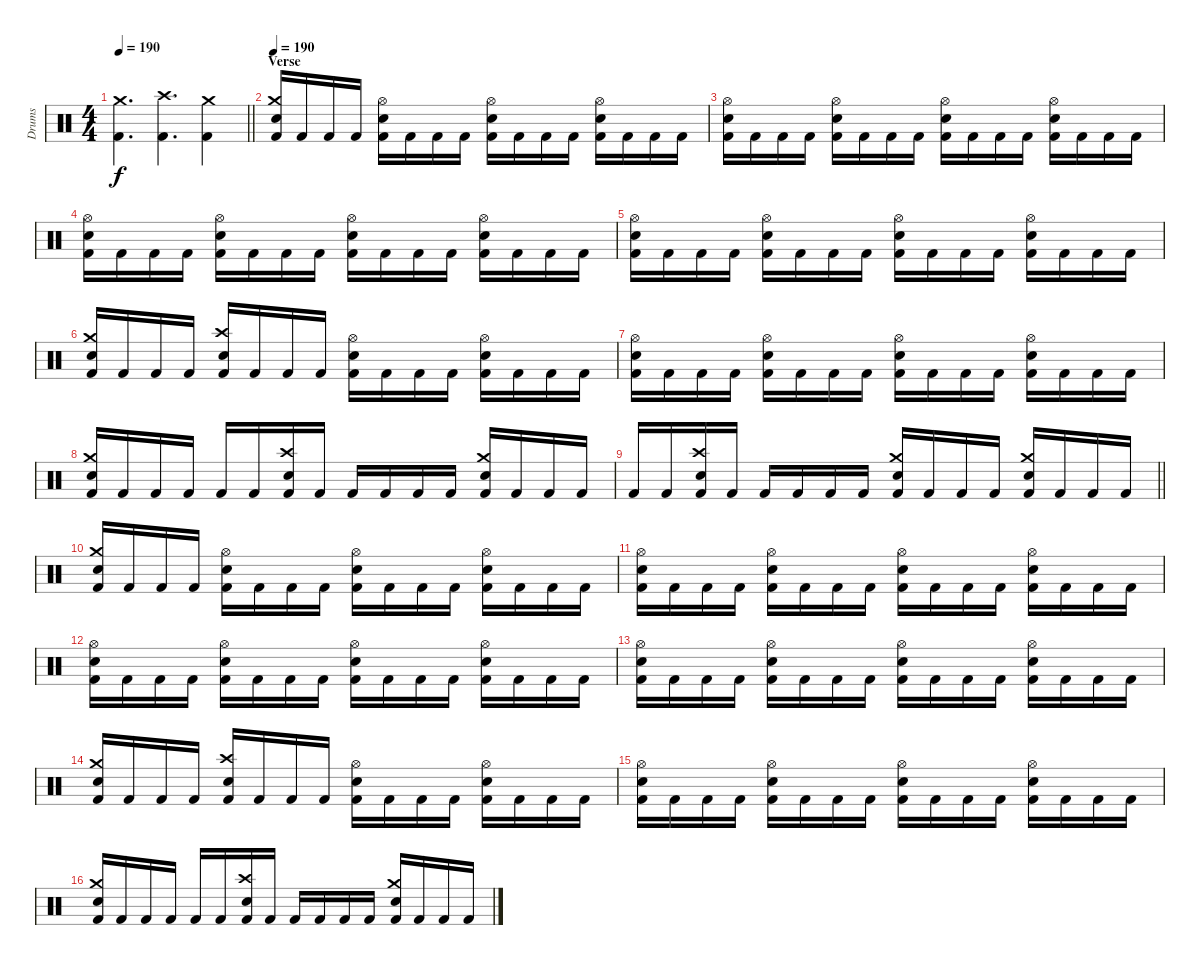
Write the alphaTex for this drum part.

\track ("Drums" "Drums") {instrument percussion}
\staff {score}
\articulation defaults
\ts (4 4)
\tempo 190
\clef neutral
\barLineRight lightlight
\ks c
("Kick (hit) 2" "Crash medium (hit)").4{d dy f} ("Kick (hit) 2" "Crash high (hit)").4{d} ("Kick (hit) 2" "Crash medium (hit)").4 |
\section ("" "Verse")
\tempo 190
("Kick (hit) 2" "Snare (hit) 2" "Crash medium (hit)").16 "Kick (hit) 2".16 "Kick (hit) 2".16 "Kick (hit) 2".16 ("Kick (hit) 2" "Snare (hit) 2" "Hi-Hat (open)").16 "Kick (hit) 2".16 "Kick (hit) 2".16 "Kick (hit) 2".16 ("Kick (hit) 2" "Snare (hit) 2" "Hi-Hat (open)").16 "Kick (hit) 2".16 "Kick (hit) 2".16 "Kick (hit) 2".16 ("Kick (hit) 2" "Snare (hit) 2" "Hi-Hat (open)").16 "Kick (hit) 2".16 "Kick (hit) 2".16 "Kick (hit) 2".16 |
("Kick (hit) 2" "Snare (hit) 2" "Hi-Hat (open)").16 "Kick (hit) 2".16 "Kick (hit) 2".16 "Kick (hit) 2".16 ("Kick (hit) 2" "Snare (hit) 2" "Hi-Hat (open)").16 "Kick (hit) 2".16 "Kick (hit) 2".16 "Kick (hit) 2".16 ("Kick (hit) 2" "Snare (hit) 2" "Hi-Hat (open)").16 "Kick (hit) 2".16 "Kick (hit) 2".16 "Kick (hit) 2".16 ("Kick (hit) 2" "Snare (hit) 2" "Hi-Hat (open)").16 "Kick (hit) 2".16 "Kick (hit) 2".16 "Kick (hit) 2".16 |
("Kick (hit) 2" "Snare (hit) 2" "Hi-Hat (open)").16 "Kick (hit) 2".16 "Kick (hit) 2".16 "Kick (hit) 2".16 ("Kick (hit) 2" "Snare (hit) 2" "Hi-Hat (open)").16 "Kick (hit) 2".16 "Kick (hit) 2".16 "Kick (hit) 2".16 ("Kick (hit) 2" "Snare (hit) 2" "Hi-Hat (open)").16 "Kick (hit) 2".16 "Kick (hit) 2".16 "Kick (hit) 2".16 ("Kick (hit) 2" "Snare (hit) 2" "Hi-Hat (open)").16 "Kick (hit) 2".16 "Kick (hit) 2".16 "Kick (hit) 2".16 |
("Kick (hit) 2" "Snare (hit) 2" "Hi-Hat (open)").16 "Kick (hit) 2".16 "Kick (hit) 2".16 "Kick (hit) 2".16 ("Kick (hit) 2" "Snare (hit) 2" "Hi-Hat (open)").16 "Kick (hit) 2".16 "Kick (hit) 2".16 "Kick (hit) 2".16 ("Kick (hit) 2" "Snare (hit) 2" "Hi-Hat (open)").16 "Kick (hit) 2".16 "Kick (hit) 2".16 "Kick (hit) 2".16 ("Kick (hit) 2" "Snare (hit) 2" "Hi-Hat (open)").16 "Kick (hit) 2".16 "Kick (hit) 2".16 "Kick (hit) 2".16 |
("Kick (hit) 2" "Snare (hit) 2" "Crash medium (hit)").16 "Kick (hit) 2".16 "Kick (hit) 2".16 "Kick (hit) 2".16 ("Kick (hit) 2" "Snare (hit) 2" "Crash high (hit)").16 "Kick (hit) 2".16 "Kick (hit) 2".16 "Kick (hit) 2".16 ("Kick (hit) 2" "Snare (hit) 2" "Hi-Hat (open)").16 "Kick (hit) 2".16 "Kick (hit) 2".16 "Kick (hit) 2".16 ("Kick (hit) 2" "Snare (hit) 2" "Hi-Hat (open)").16 "Kick (hit) 2".16 "Kick (hit) 2".16 "Kick (hit) 2".16 |
("Kick (hit) 2" "Snare (hit) 2" "Hi-Hat (open)").16 "Kick (hit) 2".16 "Kick (hit) 2".16 "Kick (hit) 2".16 ("Kick (hit) 2" "Snare (hit) 2" "Hi-Hat (open)").16 "Kick (hit) 2".16 "Kick (hit) 2".16 "Kick (hit) 2".16 ("Kick (hit) 2" "Snare (hit) 2" "Hi-Hat (open)").16 "Kick (hit) 2".16 "Kick (hit) 2".16 "Kick (hit) 2".16 ("Kick (hit) 2" "Snare (hit) 2" "Hi-Hat (open)").16 "Kick (hit) 2".16 "Kick (hit) 2".16 "Kick (hit) 2".16 |
("Kick (hit) 2" "Snare (hit) 2" "Crash medium (hit)").16 "Kick (hit) 2".16 "Kick (hit) 2".16 "Kick (hit) 2".16 "Kick (hit) 2".16 "Kick (hit) 2".16 ("Kick (hit) 2" "Snare (hit) 2" "Crash high (hit)").16 "Kick (hit) 2".16 "Kick (hit) 2".16 "Kick (hit) 2".16 "Kick (hit) 2".16 "Kick (hit) 2".16 ("Kick (hit) 2" "Snare (hit) 2" "Crash medium (hit)").16 "Kick (hit) 2".16 "Kick (hit) 2".16 "Kick (hit) 2".16 |
\barLineRight lightlight "Kick (hit) 2".16 "Kick (hit) 2".16
("Kick (hit) 2" "Snare (hit) 2" "Crash high (hit)").16 "Kick (hit) 2".16 "Kick (hit) 2".16 "Kick (hit) 2".16 "Kick (hit) 2".16 "Kick (hit) 2".16 ("Kick (hit) 2" "Snare (hit) 2" "Crash medium (hit)").16 "Kick (hit) 2".16 "Kick (hit) 2".16 "Kick (hit) 2".16 ("Kick (hit) 2" "Snare (hit) 2" "Crash medium (hit)").16 "Kick (hit) 2".16 "Kick (hit) 2".16 "Kick (hit) 2".16 |
\section ("" "")
("Kick (hit) 2" "Snare (hit) 2" "Crash medium (hit)").16 "Kick (hit) 2".16 "Kick (hit) 2".16 "Kick (hit) 2".16 ("Kick (hit) 2" "Snare (hit) 2" "Hi-Hat (open)").16 "Kick (hit) 2".16 "Kick (hit) 2".16 "Kick (hit) 2".16 ("Kick (hit) 2" "Snare (hit) 2" "Hi-Hat (open)").16 "Kick (hit) 2".16 "Kick (hit) 2".16 "Kick (hit) 2".16 ("Kick (hit) 2" "Snare (hit) 2" "Hi-Hat (open)").16 "Kick (hit) 2".16 "Kick (hit) 2".16 "Kick (hit) 2".16 |
("Kick (hit) 2" "Snare (hit) 2" "Hi-Hat (open)").16 "Kick (hit) 2".16 "Kick (hit) 2".16 "Kick (hit) 2".16 ("Kick (hit) 2" "Snare (hit) 2" "Hi-Hat (open)").16 "Kick (hit) 2".16 "Kick (hit) 2".16 "Kick (hit) 2".16 ("Kick (hit) 2" "Snare (hit) 2" "Hi-Hat (open)").16 "Kick (hit) 2".16 "Kick (hit) 2".16 "Kick (hit) 2".16 ("Kick (hit) 2" "Snare (hit) 2" "Hi-Hat (open)").16 "Kick (hit) 2".16 "Kick (hit) 2".16 "Kick (hit) 2".16 |
("Kick (hit) 2" "Snare (hit) 2" "Hi-Hat (open)").16 "Kick (hit) 2".16 "Kick (hit) 2".16 "Kick (hit) 2".16 ("Kick (hit) 2" "Snare (hit) 2" "Hi-Hat (open)").16 "Kick (hit) 2".16 "Kick (hit) 2".16 "Kick (hit) 2".16 ("Kick (hit) 2" "Snare (hit) 2" "Hi-Hat (open)").16 "Kick (hit) 2".16 "Kick (hit) 2".16 "Kick (hit) 2".16 ("Kick (hit) 2" "Snare (hit) 2" "Hi-Hat (open)").16 "Kick (hit) 2".16 "Kick (hit) 2".16 "Kick (hit) 2".16 |
("Kick (hit) 2" "Snare (hit) 2" "Hi-Hat (open)").16 "Kick (hit) 2".16 "Kick (hit) 2".16 "Kick (hit) 2".16 ("Kick (hit) 2" "Snare (hit) 2" "Hi-Hat (open)").16 "Kick (hit) 2".16 "Kick (hit) 2".16 "Kick (hit) 2".16 ("Kick (hit) 2" "Snare (hit) 2" "Hi-Hat (open)").16 "Kick (hit) 2".16 "Kick (hit) 2".16 "Kick (hit) 2".16 ("Kick (hit) 2" "Snare (hit) 2" "Hi-Hat (open)").16 "Kick (hit) 2".16 "Kick (hit) 2".16 "Kick (hit) 2".16 |
("Kick (hit) 2" "Snare (hit) 2" "Crash medium (hit)").16 "Kick (hit) 2".16 "Kick (hit) 2".16 "Kick (hit) 2".16 ("Kick (hit) 2" "Snare (hit) 2" "Crash high (hit)").16 "Kick (hit) 2".16 "Kick (hit) 2".16 "Kick (hit) 2".16 ("Kick (hit) 2" "Snare (hit) 2" "Hi-Hat (open)").16 "Kick (hit) 2".16 "Kick (hit) 2".16 "Kick (hit) 2".16 ("Kick (hit) 2" "Snare (hit) 2" "Hi-Hat (open)").16 "Kick (hit) 2".16 "Kick (hit) 2".16 "Kick (hit) 2".16 |
("Kick (hit) 2" "Snare (hit) 2" "Hi-Hat (open)").16 "Kick (hit) 2".16 "Kick (hit) 2".16 "Kick (hit) 2".16 ("Kick (hit) 2" "Snare (hit) 2" "Hi-Hat (open)").16 "Kick (hit) 2".16 "Kick (hit) 2".16 "Kick (hit) 2".16 ("Kick (hit) 2" "Snare (hit) 2" "Hi-Hat (open)").16 "Kick (hit) 2".16 "Kick (hit) 2".16 "Kick (hit) 2".16 ("Kick (hit) 2" "Snare (hit) 2" "Hi-Hat (open)").16 "Kick (hit) 2".16 "Kick (hit) 2".16 "Kick (hit) 2".16 |
("Kick (hit) 2" "Snare (hit) 2" "Crash medium (hit)").16 "Kick (hit) 2".16 "Kick (hit) 2".16 "Kick (hit) 2".16 "Kick (hit) 2".16 "Kick (hit) 2".16 ("Kick (hit) 2" "Snare (hit) 2" "Crash high (hit)").16 "Kick (hit) 2".16 "Kick (hit) 2".16 "Kick (hit) 2".16 "Kick (hit) 2".16 "Kick (hit) 2".16 ("Kick (hit) 2" "Snare (hit) 2" "Crash medium (hit)").16 "Kick (hit) 2".16 "Kick (hit) 2".16 "Kick (hit) 2".16
